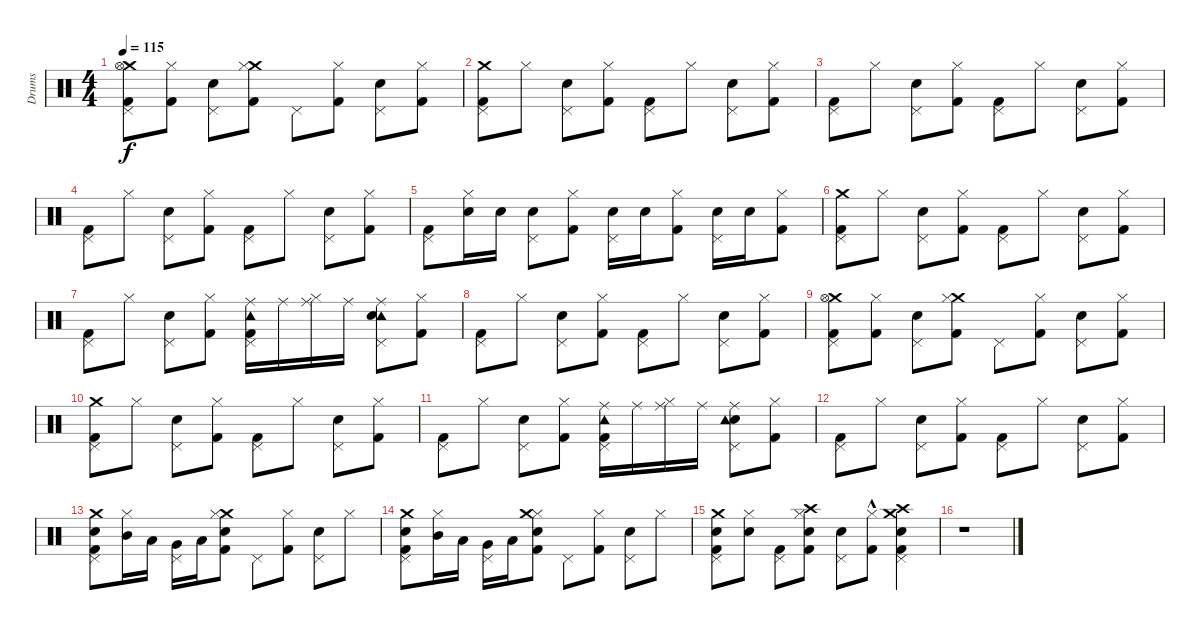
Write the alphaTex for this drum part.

\track ("Drums" "Drums") {instrument percussion}
\staff {score}
\articulation defaults
\ts (4 4)
\tempo 115
\clef neutral
\ks c
("Crash medium (hit)" "Hi-Hat (open)" "Kick (hit) 2" "Pedal Hi-Hat (hit)").8{dy f} ("Kick (hit) 2" "Hi-Hat (closed)").8 ("Snare (hit) 2" "Pedal Hi-Hat (hit)").8 ("Crash medium (hit)" "Kick (hit) 2" "Hi-Hat (closed)").8 "Pedal Hi-Hat (hit)".8 ("Kick (hit) 2" "Hi-Hat (closed)").8 ("Pedal Hi-Hat (hit)" "Snare (hit) 2").8 ("Hi-Hat (closed)" "Kick (hit) 2").8 |
("Pedal Hi-Hat (hit)" "Kick (hit) 2" "Crash medium (hit)").8 "Hi-Hat (closed)".8 ("Pedal Hi-Hat (hit)" "Snare (hit) 2").8 ("Hi-Hat (closed)" "Kick (hit) 2").8 ("Pedal Hi-Hat (hit)" "Kick (hit) 2").8 "Hi-Hat (closed)".8 ("Pedal Hi-Hat (hit)" "Snare (hit) 2").8 ("Hi-Hat (closed)" "Kick (hit) 2").8 |
("Pedal Hi-Hat (hit)" "Kick (hit) 2").8 "Hi-Hat (closed)".8 ("Pedal Hi-Hat (hit)" "Snare (hit) 2").8 ("Hi-Hat (closed)" "Kick (hit) 2").8 ("Pedal Hi-Hat (hit)" "Kick (hit) 2").8 "Hi-Hat (closed)".8 ("Pedal Hi-Hat (hit)" "Snare (hit) 2").8 ("Hi-Hat (closed)" "Kick (hit) 2").8 |
("Pedal Hi-Hat (hit)" "Kick (hit) 2").8 "Hi-Hat (closed)".8 ("Pedal Hi-Hat (hit)" "Snare (hit) 2").8 ("Hi-Hat (closed)" "Kick (hit) 2").8 ("Pedal Hi-Hat (hit)" "Kick (hit) 2").8 "Hi-Hat (closed)".8 ("Pedal Hi-Hat (hit)" "Snare (hit) 2").8 ("Hi-Hat (closed)" "Kick (hit) 2").8 |
("Pedal Hi-Hat (hit)" "Kick (hit) 2").8 ("Hi-Hat (closed)" "Snare (hit) 2").16 "Snare (hit) 2".16 ("Pedal Hi-Hat (hit)" "Snare (hit) 2").8 ("Hi-Hat (closed)" "Kick (hit) 2").8 ("Pedal Hi-Hat (hit)" "Snare (hit) 2").16 "Snare (hit) 2".16 ("Hi-Hat (closed)" "Kick (hit) 2").8 ("Pedal Hi-Hat (hit)" "Snare (hit) 2").16 "Snare (hit) 2".16 ("Hi-Hat (closed)" "Kick (hit) 2").8 |
("Kick (hit) 2" "Pedal Hi-Hat (hit)" "Crash medium (hit)").8 "Hi-Hat (closed)".8 ("Snare (hit) 2" "Pedal Hi-Hat (hit)").8 ("Kick (hit) 2" "Hi-Hat (closed)").8 ("Kick (hit) 2" "Pedal Hi-Hat (hit)").8 "Hi-Hat (closed)".8 ("Snare (hit) 2" "Pedal Hi-Hat (hit)").8 ("Kick (hit) 2" "Hi-Hat (closed)").8 |
("Kick (hit) 2" "Pedal Hi-Hat (hit)").8 "Hi-Hat (closed)".8 ("Snare (hit) 2" "Pedal Hi-Hat (hit)").8 ("Kick (hit) 2" "Hi-Hat (closed)").8 ("Ride (middle)" "Tambourine (hit)" "Kick (hit) 2" "Pedal Hi-Hat (hit)").16 "Ride (middle)".16 ("Ride (middle)" "Hi-Hat (closed)").16 "Ride (middle)".16 ("Ride (middle)" "Tambourine (hit)" "Snare (hit) 2" "Pedal Hi-Hat (hit)").8 ("Kick (hit) 2" "Hi-Hat (closed)").8 |
("Kick (hit) 2" "Pedal Hi-Hat (hit)").8 "Hi-Hat (closed)".8 ("Snare (hit) 2" "Pedal Hi-Hat (hit)").8 ("Kick (hit) 2" "Hi-Hat (closed)").8 ("Kick (hit) 2" "Pedal Hi-Hat (hit)").8 "Hi-Hat (closed)".8 ("Snare (hit) 2" "Pedal Hi-Hat (hit)").8 ("Kick (hit) 2" "Hi-Hat (closed)").8 |
("Crash medium (hit)" "Hi-Hat (open)" "Kick (hit) 2" "Pedal Hi-Hat (hit)").8 ("Kick (hit) 2" "Hi-Hat (closed)").8 ("Snare (hit) 2" "Pedal Hi-Hat (hit)").8 ("Crash medium (hit)" "Hi-Hat (closed)" "Kick (hit) 2").8 "Pedal Hi-Hat (hit)".8 ("Kick (hit) 2" "Hi-Hat (closed)").8 ("Snare (hit) 2" "Pedal Hi-Hat (hit)").8 ("Kick (hit) 2" "Hi-Hat (closed)").8 |
("Crash medium (hit)" "Kick (hit) 2" "Pedal Hi-Hat (hit)").8 "Hi-Hat (closed)".8 ("Snare (hit) 2" "Pedal Hi-Hat (hit)").8 ("Kick (hit) 2" "Hi-Hat (closed)").8 ("Kick (hit) 2" "Pedal Hi-Hat (hit)").8 "Hi-Hat (closed)".8 ("Snare (hit) 2" "Pedal Hi-Hat (hit)").8 ("Kick (hit) 2" "Hi-Hat (closed)").8 |
("Kick (hit) 2" "Pedal Hi-Hat (hit)").8 "Hi-Hat (closed)".8 ("Snare (hit) 2" "Pedal Hi-Hat (hit)").8 ("Kick (hit) 2" "Hi-Hat (closed)").8 ("Kick (hit) 2" "Pedal Hi-Hat (hit)" "Tambourine (hit)" "Ride (middle)").16 "Ride (middle)".16 ("Hi-Hat (closed)" "Ride (middle)").16 "Ride (middle)".16 ("Snare (hit) 2" "Pedal Hi-Hat (hit)" "Tambourine (hit)" "Ride (middle)").8 ("Kick (hit) 2" "Hi-Hat (closed)").8 |
("Kick (hit) 2" "Pedal Hi-Hat (hit)").8 "Hi-Hat (closed)".8 ("Snare (hit) 2" "Pedal Hi-Hat (hit)").8 ("Kick (hit) 2" "Hi-Hat (closed)").8 ("Kick (hit) 2" "Pedal Hi-Hat (hit)").8 "Hi-Hat (closed)".8 ("Snare (hit) 2" "Pedal Hi-Hat (hit)").8 ("Kick (hit) 2" "Hi-Hat (closed)").8 |
("Pedal Hi-Hat (hit)" "Crash medium (hit)" "Kick (hit) 2" "Snare (hit) 2").8 ("Hi-Hat (closed)" "Mid Tom (hit)").16 "Low Tom (hit)".16 ("Very Low Tom (hit)" "Pedal Hi-Hat (hit)").16 "Low Floor Tom (hit)".16 ("Crash medium (hit)" "Snare (hit) 2" "Kick (hit) 2" "Hi-Hat (closed)").8 "Pedal Hi-Hat (hit)".8 ("Hi-Hat (closed)" "Kick (hit) 2").8 ("Pedal Hi-Hat (hit)" "Snare (hit) 2").8 "Hi-Hat (closed)".8 |
("Pedal Hi-Hat (hit)" "Crash medium (hit)" "Kick (hit) 2" "Snare (hit) 2").8 ("Hi-Hat (closed)" "Mid Tom (hit)").16 "Low Tom (hit)".16 ("Pedal Hi-Hat (hit)" "Very Low Tom (hit)").16 "Low Floor Tom (hit)".16 ("Hi-Hat (closed)" "Crash medium (hit)" "Kick (hit) 2" "Snare (hit) 2").8 "Pedal Hi-Hat (hit)".8 ("Hi-Hat (closed)" "Kick (hit) 2").8 ("Pedal Hi-Hat (hit)" "Snare (hit) 2").8 "Hi-Hat (closed)".8 |
("Crash medium (hit)" "Pedal Hi-Hat (hit)" "Kick (hit) 2" "Snare (hit) 2").8 ("Hi-Hat (closed)" "Snare (hit) 2").8 ("Pedal Hi-Hat (hit)" "Kick (hit) 2").8 ("Crash high (hit)" "Hi-Hat (closed)" "Kick (hit) 2" "Snare (hit) 2").8 ("Pedal Hi-Hat (hit)" "Snare (hit) 2").8 ("Hi-Hat (closed)"{hac} "Kick (hit) 2").8 ("Pedal Hi-Hat (hit)" "Crash medium (hit)" "Crash high (hit)" "Kick (hit) 2" "Snare (hit) 2").4 |
r.1
